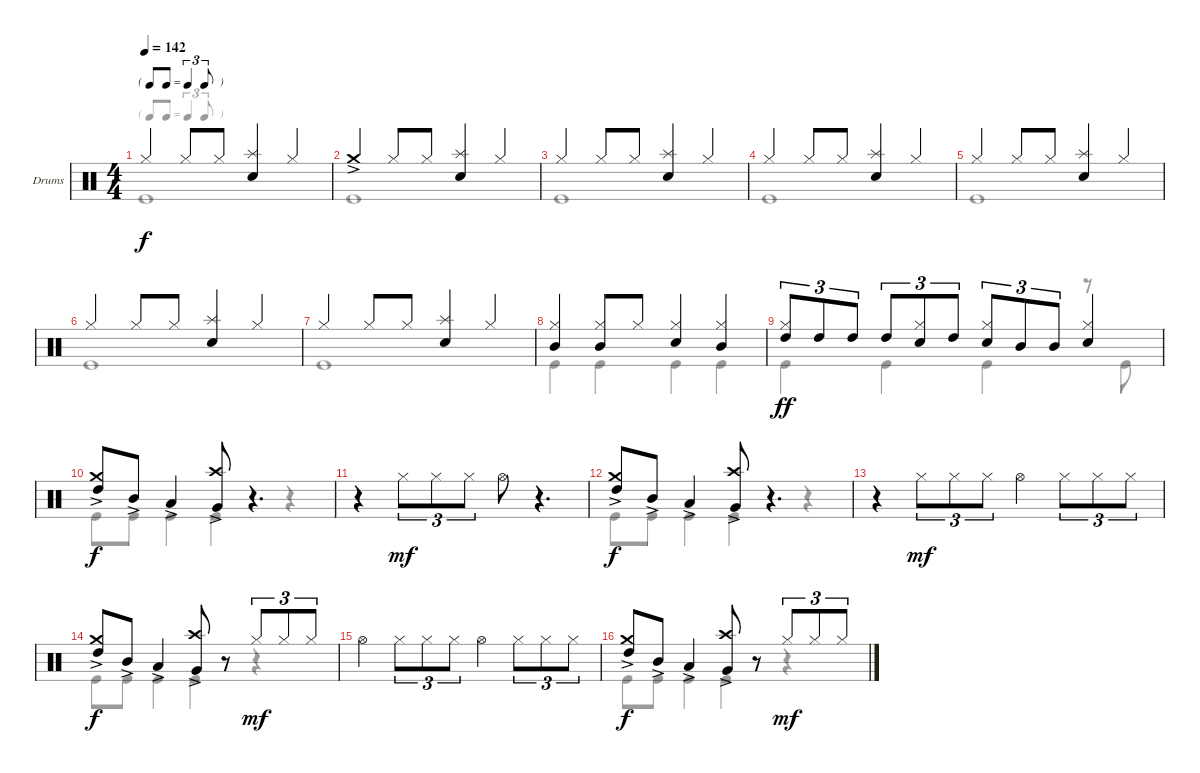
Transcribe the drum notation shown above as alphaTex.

\defaultSystemsLayout 4
\bracketExtendMode groupsimilarinstruments
\firstSystemTrackNameOrientation horizontal
\otherSystemsTrackNameOrientation horizontal
\track ("Drumkit" "Drums") {instrument percussion}
\staff {score}
\articulation defaults
\voice
\ts (4 4)
\tf triplet8th
\tempo 142
\clef neutral
\ks c "Hi-Hat (closed)".4{dy f} "Hi-Hat (closed)".8 "Hi-Hat (closed)".8
("Snare (hit) 2" "Splash (hit)").4 "Hi-Hat (closed)".4 |
"Crash medium (hit)"{ac}.4 "Hi-Hat (closed)".8 "Hi-Hat (closed)".8 ("Snare (hit) 2" "Splash (hit)").4 "Hi-Hat (closed)".4 |
"Hi-Hat (closed)".4 "Hi-Hat (closed)".8 "Hi-Hat (closed)".8 ("Snare (hit) 2" "Splash (hit)").4 "Hi-Hat (closed)".4 |
"Hi-Hat (closed)".4 "Hi-Hat (closed)".8 "Hi-Hat (closed)".8 ("Snare (hit) 2" "Splash (hit)").4 "Hi-Hat (closed)".4 |
"Hi-Hat (closed)".4 "Hi-Hat (closed)".8 "Hi-Hat (closed)".8 ("Snare (hit) 2" "Splash (hit)").4 "Hi-Hat (closed)".4 |
"Hi-Hat (closed)".4 "Hi-Hat (closed)".8 "Hi-Hat (closed)".8 ("Snare (hit) 2" "Splash (hit)").4 "Hi-Hat (closed)".4 |
"Hi-Hat (closed)".4 "Hi-Hat (closed)".8 "Hi-Hat (closed)".8 ("Snare (hit) 2" "Splash (hit)").4 "Hi-Hat (closed)".4 |
("Hi-Hat (closed)" "Mid Tom (hit)").4 ("Hi-Hat (closed)" "Mid Tom (hit)").8 "Hi-Hat (closed)".8 ("Hi-Hat (closed)" "Snare (hit) 2").4 ("Hi-Hat (closed)" "Mid Tom (hit)").4 |
("High Tom (hit)" "Hi-Hat (closed)").8{tu (3 2) dy ff} "High Tom (hit)".8{tu (3 2)} "High Tom (hit)".8{tu (3 2)} "High Tom (hit)".8{tu (3 2)} ("Hi-Hat (closed)" "Snare (hit) 2").8{tu (3 2)} "High Tom (hit)".8{tu (3 2)} ("Snare (hit) 2" "Hi-Hat (closed)").8{tu (3 2)} "Mid Tom (hit)".8{tu (3 2)} "Mid Tom (hit)".8{tu (3 2)} ("Snare (hit) 2" "Hi-Hat (closed)").4 |
("High Tom (hit)"{ac} "Crash medium (hit)"{ac}).8{dy f} "Mid Tom (hit)"{ac}.8 "Low Tom (hit)"{ac}.4 ("Very Low Tom (hit)"{ac} "Crash high (hit)"{ac}).8 r.4{d} |
r.4 "Hi-Hat (closed)".8{tu (3 2) dy mf} "Hi-Hat (closed)".8{tu (3 2)} "Hi-Hat (closed)".8{tu (3 2)} "Hi-Hat (open)".8 r.4{d} |
("High Tom (hit)"{ac} "Crash medium (hit)"{ac}).8{dy f} "Mid Tom (hit)"{ac}.8 "Low Tom (hit)"{ac}.4 ("Very Low Tom (hit)"{ac} "Crash high (hit)"{ac}).8 r.4{d} |
r.4 "Hi-Hat (closed)".8{tu (3 2) dy mf} "Hi-Hat (closed)".8{tu (3 2)} "Hi-Hat (closed)".8{tu (3 2)} "Hi-Hat (open)".4 "Hi-Hat (closed)".8{tu (3 2)} "Hi-Hat (closed)".8{tu (3 2)} "Hi-Hat (closed)".8{tu (3 2)} |
("High Tom (hit)"{ac} "Crash medium (hit)"{ac}).8{dy f} "Mid Tom (hit)"{ac}.8 "Low Tom (hit)"{ac}.4 ("Very Low Tom (hit)"{ac} "Crash high (hit)"{ac}).8 r.8 "Hi-Hat (closed)".8{tu (3 2) dy mf} "Hi-Hat (closed)".8{tu (3 2)} "Hi-Hat (closed)".8{tu (3 2)} |
"Hi-Hat (open)".4 "Hi-Hat (closed)".8{tu (3 2)} "Hi-Hat (closed)".8{tu (3 2)} "Hi-Hat (closed)".8{tu (3 2)} "Hi-Hat (open)".4 "Hi-Hat (closed)".8{tu (3 2)} "Hi-Hat (closed)".8{tu (3 2)} "Hi-Hat (closed)".8{tu (3 2)} |
("High Tom (hit)" "Crash medium (hit)"{ac}).8{dy f} "Mid Tom (hit)"{ac}.8 "Low Tom (hit)"{ac}.4 ("Very Low Tom (hit)"{ac} "Crash high (hit)"{ac}).8 r.8 "Hi-Hat (closed)".8{tu (3 2) dy mf} "Hi-Hat (closed)".8{tu (3 2)} "Hi-Hat (closed)".8{tu (3 2)}
\voice
\clef neutral
\ottava regular
\simile none
\ks c "Kick (hit)".1{dy f}
|
"Kick (hit)".1 |
"Kick (hit)".1 |
"Kick (hit)".1 |
"Kick (hit)".1 |
"Kick (hit)".1 |
"Kick (hit)".1 |
"Kick (hit)".4 "Kick (hit)".4 "Kick (hit)".4 "Kick (hit)".4 |
"Kick (hit)".4 "Kick (hit)".4 "Kick (hit)".4 r.8 "Kick (hit)".8 |
"Kick (hit)".8 "Kick (hit)".8 "Kick (hit)".4 "Kick (hit)".4 r.4 |
|
"Kick (hit)".8 "Kick (hit)".8 "Kick (hit)".4 "Kick (hit)".4 r.4 |
|
"Kick (hit)".8 "Kick (hit)".8 "Kick (hit)".4 "Kick (hit)".4 r.4 |
|
"Kick (hit)".8 "Kick (hit)".8 "Kick (hit)".4 "Kick (hit)".4 r.4
